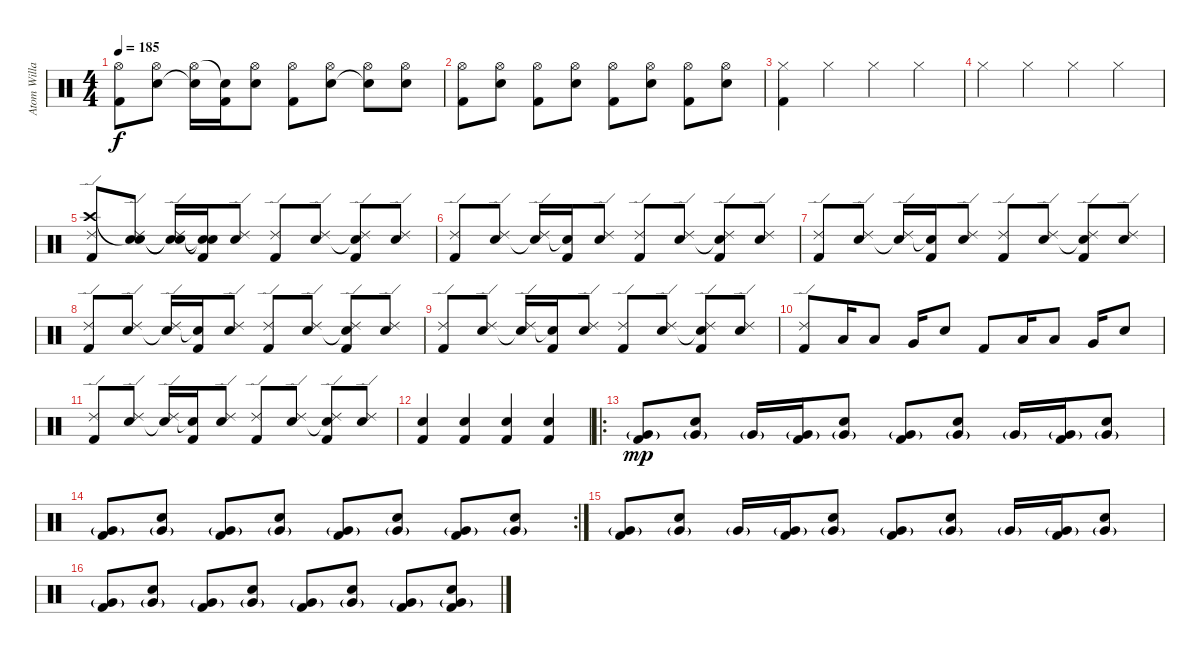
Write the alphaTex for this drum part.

\track ("Atom Willard (Drums)" "Atom Willa") {instrument percussion}
\staff {score}
\articulation defaults
\ts (4 4)
\tempo 185
\clef neutral
\ks c
("Hi-Hat (open)" "Kick (hit) 2").8{dy f} ("Hi-Hat (open)" "Snare (hit) 2").8 ("Hi-Hat (open)" "Snare (hit)"{t}).16 ("Snare (hit)"{t} "Kick (hit) 2").16 ("Hi-Hat (open)" "Snare (hit) 2").8 ("Hi-Hat (open)" "Kick (hit) 2").8 ("Hi-Hat (open)" "Snare (hit) 2").8 ("Hi-Hat (open)" "Snare (hit)"{t}).8 ("Hi-Hat (open)" "Snare (hit) 2").8 |
("Hi-Hat (open)" "Kick (hit) 2").8 ("Hi-Hat (open)" "Snare (hit) 2").8 ("Hi-Hat (open)" "Kick (hit) 2").8 ("Hi-Hat (open)" "Snare (hit) 2").8 ("Hi-Hat (open)" "Kick (hit) 2").8 ("Hi-Hat (open)" "Snare (hit) 2").8 ("Hi-Hat (open)" "Kick (hit) 2").8 ("Hi-Hat (open)" "Snare (hit) 2").8 |
("Hi-Hat (closed)" "Kick (hit) 2").4 "Hi-Hat (closed)".4 "Hi-Hat (closed)".4 "Hi-Hat (closed)".4 |
"Hi-Hat (closed)".4 "Hi-Hat (closed)".4 "Hi-Hat (closed)".4 "Hi-Hat (closed)".4 |
("Crash high (hit)" "Ride (edge) 2" "Kick (hit) 2").8 ("Snare (hit)"{t} "Ride (edge) 2" "Snare (hit) 2").8 ("Snare (hit)"{t} "Ride (edge) 2" "Snare (hit)"{t}).16 ("Snare (hit)"{t} "Snare (hit)"{t} "Kick (hit) 2").16 ("Ride (edge) 2" "Snare (hit) 2").8 ("Ride (edge) 2" "Kick (hit) 2").8 ("Ride (edge) 2" "Snare (hit) 2").8 ("Ride (edge) 2" "Snare (hit)"{t} "Kick (hit) 2").8 ("Ride (edge) 2" "Snare (hit) 2").8 |
("Ride (edge) 2" "Kick (hit) 2").8 ("Ride (edge) 2" "Snare (hit) 2").8 ("Ride (edge) 2" "Snare (hit)"{t}).16 ("Snare (hit)"{t} "Kick (hit) 2").16 ("Ride (edge) 2" "Snare (hit) 2").8 ("Ride (edge) 2" "Kick (hit) 2").8 ("Ride (edge) 2" "Snare (hit) 2").8 ("Ride (edge) 2" "Snare (hit)"{t} "Kick (hit) 2").8 ("Ride (edge) 2" "Snare (hit) 2").8 |
("Ride (edge) 2" "Kick (hit) 2").8 ("Ride (edge) 2" "Snare (hit) 2").8 ("Ride (edge) 2" "Snare (hit)"{t}).16 ("Snare (hit)"{t} "Kick (hit) 2").16 ("Ride (edge) 2" "Snare (hit) 2").8 ("Ride (edge) 2" "Kick (hit) 2").8 ("Ride (edge) 2" "Snare (hit) 2").8 ("Ride (edge) 2" "Snare (hit)"{t} "Kick (hit) 2").8 ("Ride (edge) 2" "Snare (hit) 2").8 |
("Ride (edge) 2" "Kick (hit) 2").8 ("Ride (edge) 2" "Snare (hit) 2").8 ("Ride (edge) 2" "Snare (hit)"{t}).16 ("Snare (hit)"{t} "Kick (hit) 2").16 ("Ride (edge) 2" "Snare (hit) 2").8 ("Ride (edge) 2" "Kick (hit) 2").8 ("Ride (edge) 2" "Snare (hit) 2").8 ("Ride (edge) 2" "Snare (hit)"{t} "Kick (hit) 2").8 ("Ride (edge) 2" "Snare (hit) 2").8 |
("Ride (edge) 2" "Kick (hit) 2").8 ("Ride (edge) 2" "Snare (hit) 2").8 ("Ride (edge) 2" "Snare (hit)"{t}).16 ("Snare (hit)"{t} "Kick (hit) 2").16 ("Ride (edge) 2" "Snare (hit) 2").8 ("Ride (edge) 2" "Kick (hit) 2").8 ("Ride (edge) 2" "Snare (hit) 2").8 ("Ride (edge) 2" "Snare (hit)"{t} "Kick (hit) 2").8 ("Ride (edge) 2" "Snare (hit) 2").8 |
("Ride (edge) 2" "Kick (hit) 2").8 "Low Tom (hit)".16 "Low Tom (hit)".8 "Very Low Tom (hit)".16 "Electric Snare (hit)".8 "Kick (hit) 2".8 "Low Tom (hit)".16 "Low Tom (hit)".8 "Very Low Tom (hit)".16 "Electric Snare (hit)".8 |
("Ride (edge) 2" "Kick (hit) 2").8 ("Ride (edge) 2" "Snare (hit) 2").8 ("Ride (edge) 2" "Snare (hit)"{t}).16 ("Snare (hit)"{t} "Kick (hit) 2").16 ("Ride (edge) 2" "Snare (hit) 2").8 ("Ride (edge) 2" "Kick (hit) 2").8 ("Ride (edge) 2" "Snare (hit) 2").8 ("Ride (edge) 2" "Snare (hit)"{t} "Kick (hit) 2").8 ("Ride (edge) 2" "Snare (hit) 2").8 |
("Electric Snare (hit)" "Kick (hit) 2").4 ("Electric Snare (hit)" "Kick (hit) 2").4 ("Electric Snare (hit)" "Kick (hit) 2").4 ("Electric Snare (hit)" "Kick (hit) 2").4 |
\ro
("Very Low Tom (hit)"{g} "Kick (hit) 2").8{dy mp} ("Very Low Tom (hit)"{g} "Electric Snare (hit)").8 "Very Low Tom (hit)"{g}.16 ("Very Low Tom (hit)"{g} "Kick (hit) 2").16 ("Very Low Tom (hit)"{g} "Electric Snare (hit)").8 ("Very Low Tom (hit)"{g} "Kick (hit) 2").8 ("Very Low Tom (hit)"{g} "Electric Snare (hit)").8 "Very Low Tom (hit)"{g}.16 ("Very Low Tom (hit)"{g} "Kick (hit) 2").16 ("Very Low Tom (hit)"{g} "Electric Snare (hit)").8 |
\rc 2
("Very Low Tom (hit)"{g} "Kick (hit) 2").8 ("Very Low Tom (hit)"{g} "Electric Snare (hit)").8 ("Very Low Tom (hit)"{g} "Kick (hit) 2").8 ("Very Low Tom (hit)"{g} "Electric Snare (hit)").8 ("Very Low Tom (hit)"{g} "Kick (hit) 2").8 ("Very Low Tom (hit)"{g} "Electric Snare (hit)").8 ("Very Low Tom (hit)"{g} "Kick (hit) 2").8 ("Very Low Tom (hit)"{g} "Electric Snare (hit)").8 |
("Very Low Tom (hit)"{g} "Kick (hit) 2").8 ("Very Low Tom (hit)"{g} "Electric Snare (hit)").8 "Very Low Tom (hit)"{g}.16 ("Very Low Tom (hit)"{g} "Kick (hit) 2").16 ("Very Low Tom (hit)"{g} "Electric Snare (hit)").8 ("Very Low Tom (hit)"{g} "Kick (hit) 2").8 ("Very Low Tom (hit)"{g} "Electric Snare (hit)").8 "Very Low Tom (hit)"{g}.16 ("Very Low Tom (hit)"{g} "Kick (hit) 2").16 ("Very Low Tom (hit)"{g} "Electric Snare (hit)").8 |
("Very Low Tom (hit)"{g} "Kick (hit) 2").8 ("Very Low Tom (hit)"{g} "Electric Snare (hit)").8 ("Very Low Tom (hit)"{g} "Kick (hit) 2").8 ("Very Low Tom (hit)"{g} "Electric Snare (hit)").8 ("Very Low Tom (hit)"{g} "Kick (hit) 2").8 ("Very Low Tom (hit)"{g} "Electric Snare (hit)").8 ("Very Low Tom (hit)"{g} "Kick (hit) 2").8 ("Very Low Tom (hit)"{g} "Electric Snare (hit)" "Kick (hit) 2").8
